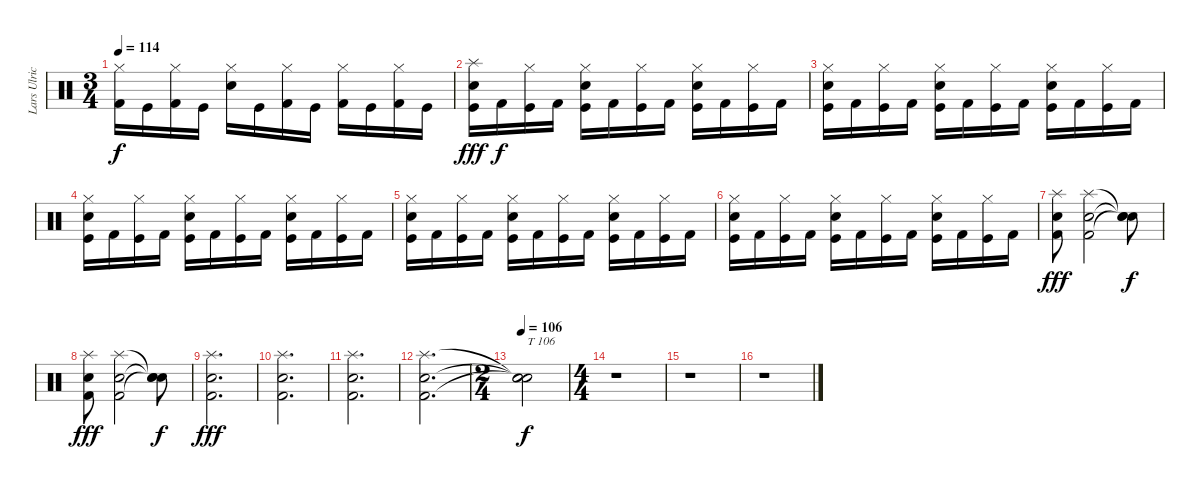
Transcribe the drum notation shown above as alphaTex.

\track ("Lars Ulrich [Drums]" "Lars Ulric") {instrument percussion}
\staff {score}
\articulation defaults
\ts (3 4)
\tempo 114
\clef neutral
\ks c
("Hi-Hat (closed)" "Kick (hit) 2").16{dy f} "Kick (hit)".16 ("Hi-Hat (closed)" "Kick (hit) 2").16 "Kick (hit)".16 ("Hi-Hat (closed)" "Electric Snare (hit)").16 "Kick (hit)".16 ("Hi-Hat (closed)" "Kick (hit) 2").16 "Kick (hit)".16 ("Hi-Hat (closed)" "Kick (hit) 2").16 "Kick (hit)".16 ("Hi-Hat (closed)" "Kick (hit) 2").16 "Kick (hit)".16 |
("Splash (hit)" "Electric Snare (hit)" "Kick (hit)").16{dy fff} "Kick (hit) 2".16{dy f} ("Hi-Hat (closed)" "Kick (hit)").16 "Kick (hit) 2".16 ("Hi-Hat (closed)" "Electric Snare (hit)" "Kick (hit)").16 "Kick (hit) 2".16 ("Hi-Hat (closed)" "Kick (hit)").16 "Kick (hit) 2".16 ("Hi-Hat (closed)" "Electric Snare (hit)" "Kick (hit)").16 "Kick (hit) 2".16 ("Hi-Hat (closed)" "Kick (hit)").16 "Kick (hit) 2".16 |
("Hi-Hat (closed)" "Electric Snare (hit)" "Kick (hit)").16 "Kick (hit) 2".16 ("Hi-Hat (closed)" "Kick (hit)").16 "Kick (hit) 2".16 ("Hi-Hat (closed)" "Electric Snare (hit)" "Kick (hit)").16 "Kick (hit) 2".16 ("Hi-Hat (closed)" "Kick (hit)").16 "Kick (hit) 2".16 ("Hi-Hat (closed)" "Electric Snare (hit)" "Kick (hit)").16 "Kick (hit) 2".16 ("Hi-Hat (closed)" "Kick (hit)").16 "Kick (hit) 2".16 |
("Hi-Hat (closed)" "Electric Snare (hit)" "Kick (hit)").16 "Kick (hit) 2".16 ("Hi-Hat (closed)" "Kick (hit)").16 "Kick (hit) 2".16 ("Hi-Hat (closed)" "Electric Snare (hit)" "Kick (hit)").16 "Kick (hit) 2".16 ("Hi-Hat (closed)" "Kick (hit)").16 "Kick (hit) 2".16 ("Hi-Hat (closed)" "Electric Snare (hit)" "Kick (hit)").16 "Kick (hit) 2".16 ("Hi-Hat (closed)" "Kick (hit)").16 "Kick (hit) 2".16 |
("Hi-Hat (closed)" "Electric Snare (hit)" "Kick (hit)").16 "Kick (hit) 2".16 ("Hi-Hat (closed)" "Kick (hit)").16 "Kick (hit) 2".16 ("Hi-Hat (closed)" "Electric Snare (hit)" "Kick (hit)").16 "Kick (hit) 2".16 ("Hi-Hat (closed)" "Kick (hit)").16 "Kick (hit) 2".16 ("Hi-Hat (closed)" "Electric Snare (hit)" "Kick (hit)").16 "Kick (hit) 2".16 ("Hi-Hat (closed)" "Kick (hit)").16 "Kick (hit) 2".16 |
("Hi-Hat (closed)" "Electric Snare (hit)" "Kick (hit)").16 "Kick (hit) 2".16 ("Hi-Hat (closed)" "Kick (hit)").16 "Kick (hit) 2".16 ("Hi-Hat (closed)" "Electric Snare (hit)" "Kick (hit)").16 "Kick (hit) 2".16 ("Hi-Hat (closed)" "Kick (hit)").16 "Kick (hit) 2".16 ("Hi-Hat (closed)" "Electric Snare (hit)" "Kick (hit)").16 "Kick (hit) 2".16 ("Hi-Hat (closed)" "Kick (hit)").16 "Kick (hit) 2".16 |
("Splash (hit)" "Electric Snare (hit)" "Kick (hit) 2").8{dy fff} ("Splash (hit)" "Electric Snare (hit)" "Kick (hit) 2").2 ("Snare (hit)"{t} "Snare (hit)"{t} "Snare (hit)"{t}).8{dy f} |
("Splash (hit)" "Electric Snare (hit)" "Kick (hit) 2").8{dy fff} ("Splash (hit)" "Electric Snare (hit)" "Kick (hit) 2").2 ("Snare (hit)"{t} "Snare (hit)"{t} "Snare (hit)"{t}).8{dy f} |
("Splash (hit)" "Electric Snare (hit)" "Kick (hit) 2").2{d dy fff} |
("Splash (hit)" "Electric Snare (hit)" "Kick (hit) 2").2{d} |
("Splash (hit)" "Electric Snare (hit)" "Kick (hit) 2").2{d} |
("Splash (hit)" "Electric Snare (hit)" "Kick (hit) 2").2{d} |
\ts (2 4)
\tempo 106
("Snare (hit)"{t} "Snare (hit)"{t} "Snare (hit)"{t}).2{txt "T 106" dy f} |
\ts (4 4)
r.1 |
r.1 |
r.1
